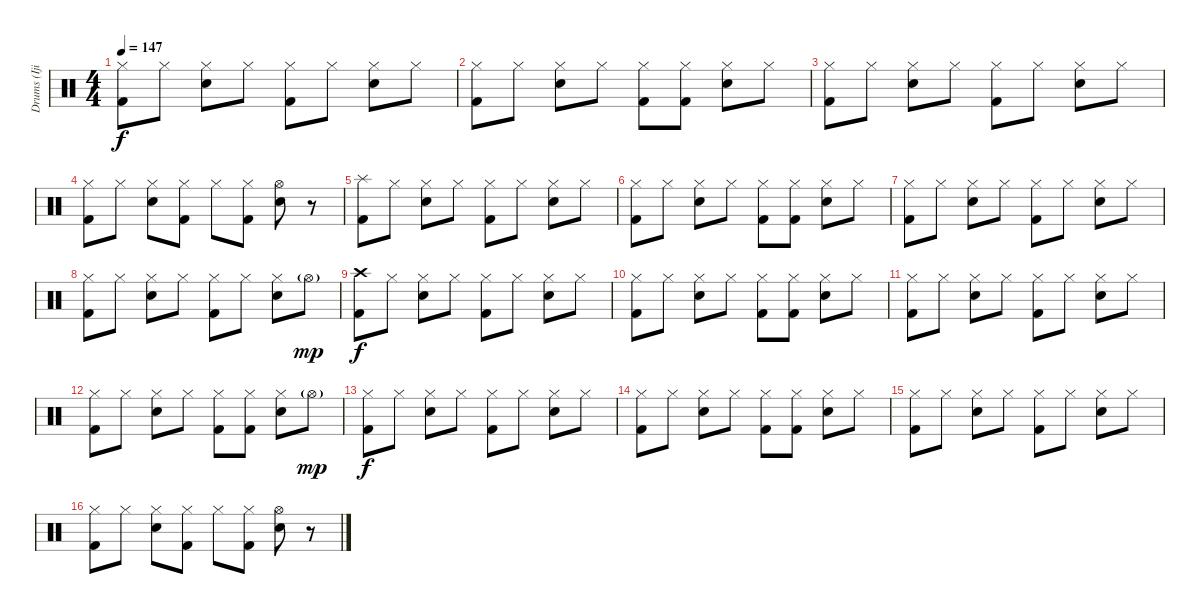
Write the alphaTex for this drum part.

\track ("Drums (Ijichi)" "Drums (Iji") {instrument percussion}
\staff {score}
\articulation defaults
\ts (4 4)
\tempo 147
\clef neutral
\ks c
("Hi-Hat (closed)" "Kick (hit) 2").8{dy f} "Hi-Hat (closed)".8 ("Hi-Hat (closed)" "Snare (hit) 2").8 "Hi-Hat (closed)".8 ("Hi-Hat (closed)" "Kick (hit) 2").8 "Hi-Hat (closed)".8 ("Hi-Hat (closed)" "Snare (hit) 2").8 "Hi-Hat (closed)".8 |
("Hi-Hat (closed)" "Kick (hit) 2").8 "Hi-Hat (closed)".8 ("Hi-Hat (closed)" "Snare (hit) 2").8 "Hi-Hat (closed)".8 ("Hi-Hat (closed)" "Kick (hit) 2").8 ("Hi-Hat (closed)" "Kick (hit) 2").8 ("Hi-Hat (closed)" "Snare (hit) 2").8 "Hi-Hat (closed)".8 |
("Hi-Hat (closed)" "Kick (hit) 2").8 "Hi-Hat (closed)".8 ("Hi-Hat (closed)" "Snare (hit) 2").8 "Hi-Hat (closed)".8 ("Hi-Hat (closed)" "Kick (hit) 2").8 "Hi-Hat (closed)".8 ("Hi-Hat (closed)" "Snare (hit) 2").8 "Hi-Hat (closed)".8 |
("Hi-Hat (closed)" "Kick (hit) 2").8 "Hi-Hat (closed)".8 ("Hi-Hat (closed)" "Snare (hit) 2").8 ("Hi-Hat (closed)" "Kick (hit) 2").8 "Hi-Hat (closed)".8 ("Hi-Hat (closed)" "Kick (hit) 2").8 ("Hi-Hat (open)" "Snare (hit) 2").8 r.8 |
("Splash (hit)" "Kick (hit) 2").8 "Hi-Hat (closed)".8 ("Hi-Hat (closed)" "Snare (hit) 2").8 "Hi-Hat (closed)".8 ("Hi-Hat (closed)" "Kick (hit) 2").8 "Hi-Hat (closed)".8 ("Hi-Hat (closed)" "Snare (hit) 2").8 "Hi-Hat (closed)".8 |
("Hi-Hat (closed)" "Kick (hit) 2").8 "Hi-Hat (closed)".8 ("Hi-Hat (closed)" "Snare (hit) 2").8 "Hi-Hat (closed)".8 ("Hi-Hat (closed)" "Kick (hit) 2").8 ("Hi-Hat (closed)" "Kick (hit) 2").8 ("Hi-Hat (closed)" "Snare (hit) 2").8 "Hi-Hat (closed)".8 |
("Hi-Hat (closed)" "Kick (hit) 2").8 "Hi-Hat (closed)".8 ("Hi-Hat (closed)" "Snare (hit) 2").8 "Hi-Hat (closed)".8 ("Hi-Hat (closed)" "Kick (hit) 2").8 "Hi-Hat (closed)".8 ("Hi-Hat (closed)" "Snare (hit) 2").8 "Hi-Hat (closed)".8 |
("Hi-Hat (closed)" "Kick (hit) 2").8 "Hi-Hat (closed)".8 ("Hi-Hat (closed)" "Snare (hit) 2").8 "Hi-Hat (closed)".8 ("Hi-Hat (closed)" "Kick (hit) 2").8 "Hi-Hat (closed)".8 ("Hi-Hat (closed)" "Snare (hit) 2").8 "Hi-Hat (open)"{g}.8{dy mp} |
("Crash high (hit)" "Kick (hit) 2").8{dy f} "Hi-Hat (closed)".8 ("Hi-Hat (closed)" "Snare (hit) 2").8 "Hi-Hat (closed)".8 ("Hi-Hat (closed)" "Kick (hit) 2").8 "Hi-Hat (closed)".8 ("Hi-Hat (closed)" "Snare (hit) 2").8 "Hi-Hat (closed)".8 |
("Hi-Hat (closed)" "Kick (hit) 2").8 "Hi-Hat (closed)".8 ("Hi-Hat (closed)" "Snare (hit) 2").8 "Hi-Hat (closed)".8 ("Hi-Hat (closed)" "Kick (hit) 2").8 ("Hi-Hat (closed)" "Kick (hit) 2").8 ("Hi-Hat (closed)" "Snare (hit) 2").8 "Hi-Hat (closed)".8 |
("Hi-Hat (closed)" "Kick (hit) 2").8 "Hi-Hat (closed)".8 ("Hi-Hat (closed)" "Snare (hit) 2").8 "Hi-Hat (closed)".8 ("Hi-Hat (closed)" "Kick (hit) 2").8 "Hi-Hat (closed)".8 ("Hi-Hat (closed)" "Snare (hit) 2").8 "Hi-Hat (closed)".8 |
("Hi-Hat (closed)" "Kick (hit) 2").8 "Hi-Hat (closed)".8 ("Hi-Hat (closed)" "Snare (hit) 2").8 "Hi-Hat (closed)".8 ("Hi-Hat (closed)" "Kick (hit) 2").8 ("Hi-Hat (closed)" "Kick (hit) 2").8 ("Hi-Hat (closed)" "Snare (hit) 2").8 "Hi-Hat (open)"{g}.8{dy mp} |
("Hi-Hat (closed)" "Kick (hit) 2").8{dy f} "Hi-Hat (closed)".8 ("Hi-Hat (closed)" "Snare (hit) 2").8 "Hi-Hat (closed)".8 ("Hi-Hat (closed)" "Kick (hit) 2").8 "Hi-Hat (closed)".8 ("Hi-Hat (closed)" "Snare (hit) 2").8 "Hi-Hat (closed)".8 |
("Hi-Hat (closed)" "Kick (hit) 2").8 "Hi-Hat (closed)".8 ("Hi-Hat (closed)" "Snare (hit) 2").8 "Hi-Hat (closed)".8 ("Hi-Hat (closed)" "Kick (hit) 2").8 ("Hi-Hat (closed)" "Kick (hit) 2").8 ("Hi-Hat (closed)" "Snare (hit) 2").8 "Hi-Hat (closed)".8 |
("Hi-Hat (closed)" "Kick (hit) 2").8 "Hi-Hat (closed)".8 ("Hi-Hat (closed)" "Snare (hit) 2").8 "Hi-Hat (closed)".8 ("Hi-Hat (closed)" "Kick (hit) 2").8 "Hi-Hat (closed)".8 ("Hi-Hat (closed)" "Snare (hit) 2").8 "Hi-Hat (closed)".8 |
("Hi-Hat (closed)" "Kick (hit) 2").8 "Hi-Hat (closed)".8 ("Hi-Hat (closed)" "Snare (hit) 2").8 ("Hi-Hat (closed)" "Kick (hit) 2").8 "Hi-Hat (closed)".8 ("Hi-Hat (closed)" "Kick (hit) 2").8 ("Hi-Hat (open)" "Snare (hit) 2").8 r.8
